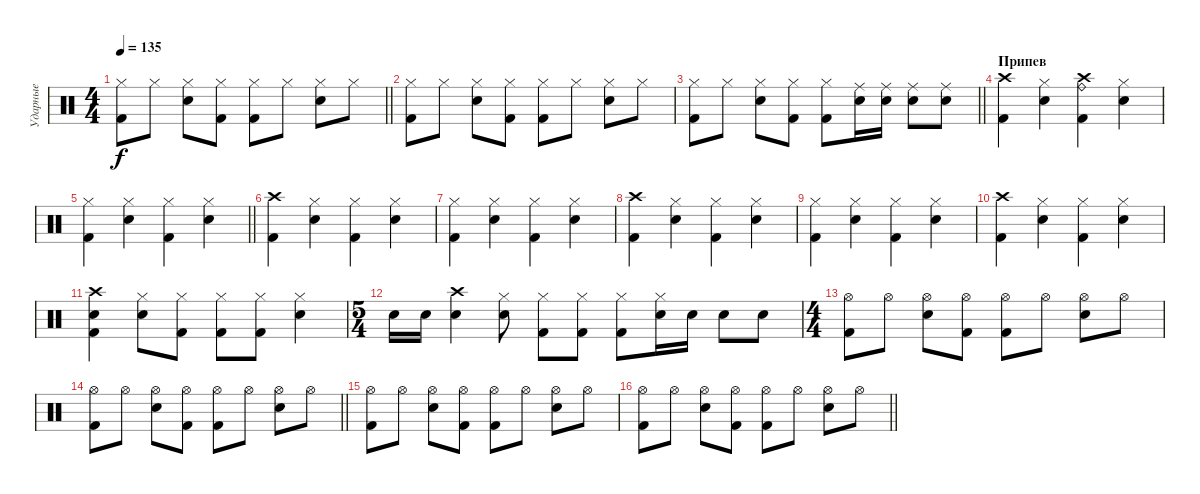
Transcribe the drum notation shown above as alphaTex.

\track ("Ударные" "Ударные") {instrument percussion}
\staff {score}
\articulation defaults
\ts (4 4)
\tempo 135
\clef neutral
\barLineRight lightlight
\ks c
("Hi-Hat (closed)" "Kick (hit) 2").8{dy f} "Hi-Hat (closed)".8 ("Hi-Hat (closed)" "Snare (hit) 2").8 ("Hi-Hat (closed)" "Kick (hit) 2").8 ("Hi-Hat (closed)" "Kick (hit) 2").8 "Hi-Hat (closed)".8 ("Hi-Hat (closed)" "Snare (hit) 2").8 "Hi-Hat (closed)".8 |
("Hi-Hat (closed)" "Kick (hit) 2").8 "Hi-Hat (closed)".8 ("Hi-Hat (closed)" "Snare (hit) 2").8 ("Hi-Hat (closed)" "Kick (hit) 2").8 ("Hi-Hat (closed)" "Kick (hit) 2").8 "Hi-Hat (closed)".8 ("Hi-Hat (closed)" "Snare (hit) 2").8 "Hi-Hat (closed)".8 |
\barLineRight lightlight
("Hi-Hat (closed)" "Kick (hit) 2").8 "Hi-Hat (closed)".8 ("Hi-Hat (closed)" "Snare (hit) 2").8 ("Hi-Hat (closed)" "Kick (hit) 2").8 ("Hi-Hat (closed)" "Kick (hit) 2").8 ("Ride (middle)" "Snare (hit) 2").16 ("Ride (middle)" "Snare (hit) 2").16 ("Ride (middle)" "Snare (hit) 2").8 ("Ride (middle)" "Snare (hit) 2").8 |
\section ("" "Припев")
("Crash high (hit)" "Kick (hit) 2").4 ("Hi-Hat (closed)" "Snare (hit) 2").4 ("Crash high (hit)" "Ride (bell)" "Kick (hit) 2").4 ("Hi-Hat (closed)" "Snare (hit) 2").4 |
\barLineRight lightlight
("Hi-Hat (closed)" "Kick (hit) 2").4 ("Hi-Hat (closed)" "Snare (hit) 2").4 ("Hi-Hat (closed)" "Kick (hit) 2").4 ("Hi-Hat (closed)" "Snare (hit) 2").4 |
("Crash high (hit)" "Kick (hit) 2").4 ("Hi-Hat (closed)" "Snare (hit) 2").4 ("Hi-Hat (closed)" "Kick (hit) 2").4 ("Hi-Hat (closed)" "Snare (hit) 2").4 |
("Hi-Hat (closed)" "Kick (hit) 2").4 ("Hi-Hat (closed)" "Snare (hit) 2").4 ("Hi-Hat (closed)" "Kick (hit) 2").4 ("Hi-Hat (closed)" "Snare (hit) 2").4 |
("Crash high (hit)" "Kick (hit) 2").4 ("Hi-Hat (closed)" "Snare (hit) 2").4 ("Hi-Hat (closed)" "Kick (hit) 2").4 ("Hi-Hat (closed)" "Snare (hit) 2").4 |
("Hi-Hat (closed)" "Kick (hit) 2").4 ("Hi-Hat (closed)" "Snare (hit) 2").4 ("Hi-Hat (closed)" "Kick (hit) 2").4 ("Hi-Hat (closed)" "Snare (hit) 2").4 |
("Crash high (hit)" "Kick (hit) 2").4 ("Hi-Hat (closed)" "Snare (hit) 2").4 ("Hi-Hat (closed)" "Kick (hit) 2").4 ("Hi-Hat (closed)" "Snare (hit) 2").4 |
("Crash high (hit)" "Snare (hit) 2" "Kick (hit) 2").4 ("Hi-Hat (closed)" "Snare (hit) 2").8 ("Hi-Hat (closed)" "Kick (hit) 2").8 ("Hi-Hat (closed)" "Kick (hit) 2").8 ("Hi-Hat (closed)" "Kick (hit) 2").8 ("Hi-Hat (closed)" "Snare (hit) 2").4 |
\ts (5 4)
"Snare (hit) 2".16 "Snare (hit) 2".16 ("Crash high (hit)" "Snare (hit) 2").4 ("Hi-Hat (closed)" "Snare (hit) 2").8 ("Hi-Hat (closed)" "Kick (hit) 2").8 ("Hi-Hat (closed)" "Kick (hit) 2").8 ("Hi-Hat (closed)" "Kick (hit) 2").8 ("Hi-Hat (closed)" "Snare (hit) 2").16 "Snare (hit) 2".16 "Snare (hit) 2".8 "Snare (hit) 2".8 |
\ts (4 4)
("Hi-Hat (open)" "Kick (hit) 2").8 "Hi-Hat (open)".8 ("Hi-Hat (open)" "Snare (hit) 2").8 ("Hi-Hat (open)" "Kick (hit) 2").8 ("Hi-Hat (open)" "Kick (hit) 2").8 "Hi-Hat (open)".8 ("Hi-Hat (open)" "Snare (hit) 2").8 "Hi-Hat (open)".8 |
\barLineRight lightlight
("Hi-Hat (open)" "Kick (hit) 2").8 "Hi-Hat (open)".8 ("Hi-Hat (open)" "Snare (hit) 2").8 ("Hi-Hat (open)" "Kick (hit) 2").8 ("Hi-Hat (open)" "Kick (hit) 2").8 "Hi-Hat (open)".8 ("Hi-Hat (open)" "Snare (hit) 2").8 "Hi-Hat (open)".8 |
("Hi-Hat (open)" "Kick (hit) 2").8 "Hi-Hat (open)".8 ("Hi-Hat (open)" "Snare (hit) 2").8 ("Hi-Hat (open)" "Kick (hit) 2").8 ("Hi-Hat (open)" "Kick (hit) 2").8 "Hi-Hat (open)".8 ("Hi-Hat (open)" "Snare (hit) 2").8 "Hi-Hat (open)".8 |
\barLineRight lightlight
("Hi-Hat (open)" "Kick (hit) 2").8 "Hi-Hat (open)".8 ("Hi-Hat (open)" "Snare (hit) 2").8 ("Hi-Hat (open)" "Kick (hit) 2").8 ("Hi-Hat (open)" "Kick (hit) 2").8 "Hi-Hat (open)".8 ("Hi-Hat (open)" "Snare (hit) 2").8 "Hi-Hat (open)".8
